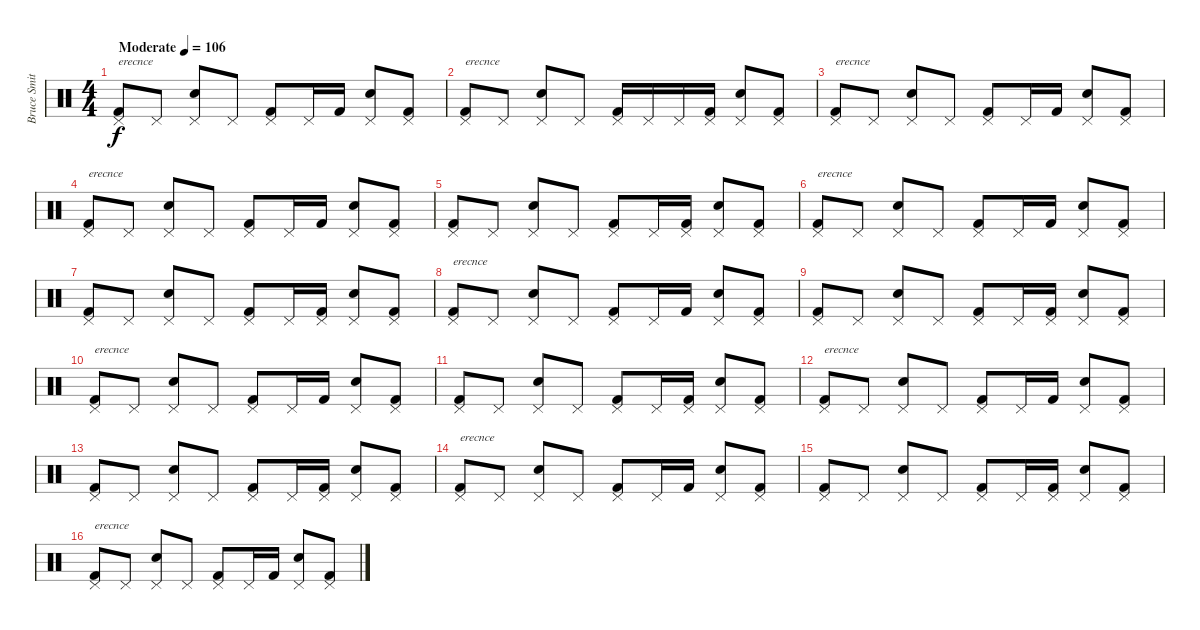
\track ("Bruce Smith" "Bruce Smit") {instrument percussion}
\staff {score}
\articulation defaults
\ts (4 4)
\tempo (106 "Moderate")
\clef neutral
\ks c
("Pedal Hi-Hat (hit)" "Kick (hit) 2").8{txt "erecnce" dy f} "Pedal Hi-Hat (hit)".8 ("Pedal Hi-Hat (hit)" "Snare (hit) 2").8 "Pedal Hi-Hat (hit)".8 ("Pedal Hi-Hat (hit)" "Kick (hit) 2").8 "Pedal Hi-Hat (hit)".16 "Kick (hit) 2".16 ("Pedal Hi-Hat (hit)" "Snare (hit) 2").8 ("Pedal Hi-Hat (hit)" "Kick (hit) 2").8 |
("Pedal Hi-Hat (hit)" "Kick (hit) 2").8{txt "erecnce"} "Pedal Hi-Hat (hit)".8 ("Pedal Hi-Hat (hit)" "Snare (hit) 2").8 "Pedal Hi-Hat (hit)".8 ("Pedal Hi-Hat (hit)" "Kick (hit) 2").16 "Pedal Hi-Hat (hit)".16 "Pedal Hi-Hat (hit)".16 ("Pedal Hi-Hat (hit)" "Kick (hit) 2").16 ("Pedal Hi-Hat (hit)" "Snare (hit) 2").8 ("Pedal Hi-Hat (hit)" "Kick (hit) 2").8 |
("Pedal Hi-Hat (hit)" "Kick (hit) 2").8{txt "erecnce"} "Pedal Hi-Hat (hit)".8 ("Pedal Hi-Hat (hit)" "Snare (hit) 2").8 "Pedal Hi-Hat (hit)".8 ("Pedal Hi-Hat (hit)" "Kick (hit) 2").8 "Pedal Hi-Hat (hit)".16 "Kick (hit) 2".16 ("Pedal Hi-Hat (hit)" "Snare (hit) 2").8 ("Pedal Hi-Hat (hit)" "Kick (hit) 2").8 |
("Pedal Hi-Hat (hit)" "Kick (hit) 2").8{txt "erecnce"} "Pedal Hi-Hat (hit)".8 ("Pedal Hi-Hat (hit)" "Snare (hit) 2").8 "Pedal Hi-Hat (hit)".8 ("Pedal Hi-Hat (hit)" "Kick (hit) 2").8 "Pedal Hi-Hat (hit)".16 "Kick (hit) 2".16 ("Pedal Hi-Hat (hit)" "Snare (hit) 2").8 ("Pedal Hi-Hat (hit)" "Kick (hit) 2").8 |
("Pedal Hi-Hat (hit)" "Kick (hit) 2").8 "Pedal Hi-Hat (hit)".8 ("Pedal Hi-Hat (hit)" "Snare (hit) 2").8 "Pedal Hi-Hat (hit)".8 ("Pedal Hi-Hat (hit)" "Kick (hit) 2").8 "Pedal Hi-Hat (hit)".16 ("Pedal Hi-Hat (hit)" "Kick (hit) 2").16 ("Pedal Hi-Hat (hit)" "Snare (hit) 2").8 ("Pedal Hi-Hat (hit)" "Kick (hit) 2").8 |
("Pedal Hi-Hat (hit)" "Kick (hit) 2").8{txt "erecnce"} "Pedal Hi-Hat (hit)".8 ("Pedal Hi-Hat (hit)" "Snare (hit) 2").8 "Pedal Hi-Hat (hit)".8 ("Pedal Hi-Hat (hit)" "Kick (hit) 2").8 "Pedal Hi-Hat (hit)".16 "Kick (hit) 2".16 ("Pedal Hi-Hat (hit)" "Snare (hit) 2").8 ("Pedal Hi-Hat (hit)" "Kick (hit) 2").8 |
("Pedal Hi-Hat (hit)" "Kick (hit) 2").8 "Pedal Hi-Hat (hit)".8 ("Pedal Hi-Hat (hit)" "Snare (hit) 2").8 "Pedal Hi-Hat (hit)".8 ("Pedal Hi-Hat (hit)" "Kick (hit) 2").8 "Pedal Hi-Hat (hit)".16 ("Pedal Hi-Hat (hit)" "Kick (hit) 2").16 ("Pedal Hi-Hat (hit)" "Snare (hit) 2").8 ("Pedal Hi-Hat (hit)" "Kick (hit) 2").8 |
("Pedal Hi-Hat (hit)" "Kick (hit) 2").8{txt "erecnce"} "Pedal Hi-Hat (hit)".8 ("Pedal Hi-Hat (hit)" "Snare (hit) 2").8 "Pedal Hi-Hat (hit)".8 ("Pedal Hi-Hat (hit)" "Kick (hit) 2").8 "Pedal Hi-Hat (hit)".16 "Kick (hit) 2".16 ("Pedal Hi-Hat (hit)" "Snare (hit) 2").8 ("Pedal Hi-Hat (hit)" "Kick (hit) 2").8 |
("Pedal Hi-Hat (hit)" "Kick (hit) 2").8 "Pedal Hi-Hat (hit)".8 ("Pedal Hi-Hat (hit)" "Snare (hit) 2").8 "Pedal Hi-Hat (hit)".8 ("Pedal Hi-Hat (hit)" "Kick (hit) 2").8 "Pedal Hi-Hat (hit)".16 ("Pedal Hi-Hat (hit)" "Kick (hit) 2").16 ("Pedal Hi-Hat (hit)" "Snare (hit) 2").8 ("Pedal Hi-Hat (hit)" "Kick (hit) 2").8 |
("Pedal Hi-Hat (hit)" "Kick (hit) 2").8{txt "erecnce"} "Pedal Hi-Hat (hit)".8 ("Pedal Hi-Hat (hit)" "Snare (hit) 2").8 "Pedal Hi-Hat (hit)".8 ("Pedal Hi-Hat (hit)" "Kick (hit) 2").8 "Pedal Hi-Hat (hit)".16 "Kick (hit) 2".16 ("Pedal Hi-Hat (hit)" "Snare (hit) 2").8 ("Pedal Hi-Hat (hit)" "Kick (hit) 2").8 |
("Pedal Hi-Hat (hit)" "Kick (hit) 2").8 "Pedal Hi-Hat (hit)".8 ("Pedal Hi-Hat (hit)" "Snare (hit) 2").8 "Pedal Hi-Hat (hit)".8 ("Pedal Hi-Hat (hit)" "Kick (hit) 2").8 "Pedal Hi-Hat (hit)".16 ("Pedal Hi-Hat (hit)" "Kick (hit) 2").16 ("Pedal Hi-Hat (hit)" "Snare (hit) 2").8 ("Pedal Hi-Hat (hit)" "Kick (hit) 2").8 |
("Pedal Hi-Hat (hit)" "Kick (hit) 2").8{txt "erecnce"} "Pedal Hi-Hat (hit)".8 ("Pedal Hi-Hat (hit)" "Snare (hit) 2").8 "Pedal Hi-Hat (hit)".8 ("Pedal Hi-Hat (hit)" "Kick (hit) 2").8 "Pedal Hi-Hat (hit)".16 "Kick (hit) 2".16 ("Pedal Hi-Hat (hit)" "Snare (hit) 2").8 ("Pedal Hi-Hat (hit)" "Kick (hit) 2").8 |
("Pedal Hi-Hat (hit)" "Kick (hit) 2").8 "Pedal Hi-Hat (hit)".8 ("Pedal Hi-Hat (hit)" "Snare (hit) 2").8 "Pedal Hi-Hat (hit)".8 ("Pedal Hi-Hat (hit)" "Kick (hit) 2").8 "Pedal Hi-Hat (hit)".16 ("Pedal Hi-Hat (hit)" "Kick (hit) 2").16 ("Pedal Hi-Hat (hit)" "Snare (hit) 2").8 ("Pedal Hi-Hat (hit)" "Kick (hit) 2").8 |
("Pedal Hi-Hat (hit)" "Kick (hit) 2").8{txt "erecnce"} "Pedal Hi-Hat (hit)".8 ("Pedal Hi-Hat (hit)" "Snare (hit) 2").8 "Pedal Hi-Hat (hit)".8 ("Pedal Hi-Hat (hit)" "Kick (hit) 2").8 "Pedal Hi-Hat (hit)".16 "Kick (hit) 2".16 ("Pedal Hi-Hat (hit)" "Snare (hit) 2").8 ("Pedal Hi-Hat (hit)" "Kick (hit) 2").8 |
("Pedal Hi-Hat (hit)" "Kick (hit) 2").8 "Pedal Hi-Hat (hit)".8 ("Pedal Hi-Hat (hit)" "Snare (hit) 2").8 "Pedal Hi-Hat (hit)".8 ("Pedal Hi-Hat (hit)" "Kick (hit) 2").8 "Pedal Hi-Hat (hit)".16 ("Pedal Hi-Hat (hit)" "Kick (hit) 2").16 ("Pedal Hi-Hat (hit)" "Snare (hit) 2").8 ("Pedal Hi-Hat (hit)" "Kick (hit) 2").8 |
("Pedal Hi-Hat (hit)" "Kick (hit) 2").8{txt "erecnce"} "Pedal Hi-Hat (hit)".8 ("Pedal Hi-Hat (hit)" "Snare (hit) 2").8 "Pedal Hi-Hat (hit)".8 ("Pedal Hi-Hat (hit)" "Kick (hit) 2").8 "Pedal Hi-Hat (hit)".16 "Kick (hit) 2".16 ("Pedal Hi-Hat (hit)" "Snare (hit) 2").8 ("Pedal Hi-Hat (hit)" "Kick (hit) 2").8
